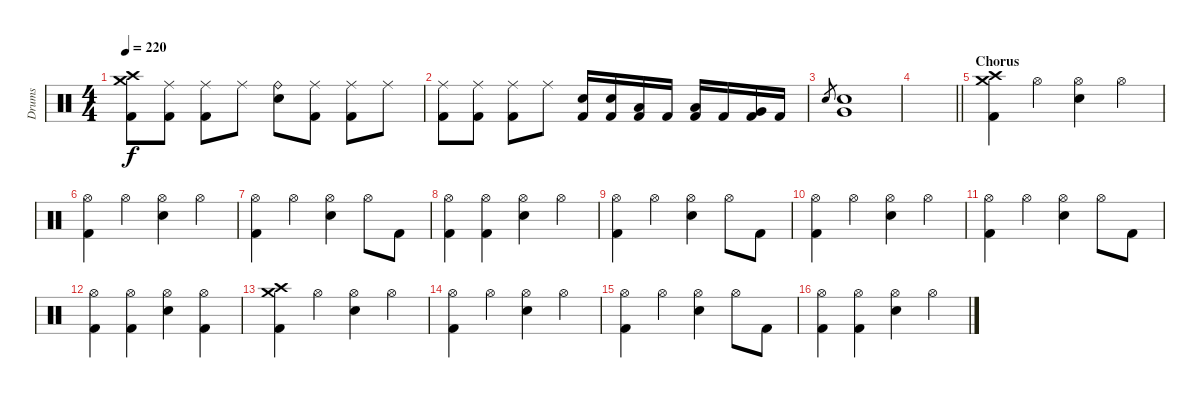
\track ("Drums" "Drums") {instrument percussion}
\staff {score}
\articulation defaults
\ts (4 4)
\tempo 220
\clef neutral
\ks c
("Crash medium (hit)" "Crash high (hit)" "Kick (hit) 2").8{dy f} ("Ride (middle)" "Kick (hit) 2").8 ("Ride (middle)" "Kick (hit) 2").8 "Ride (middle)".8 ("Ride (bell)" "Electric Snare (hit)").8 ("Ride (middle)" "Kick (hit) 2").8 ("Ride (middle)" "Kick (hit) 2").8 "Ride (middle)".8 |
("Ride (middle)" "Kick (hit) 2").8 ("Ride (middle)" "Kick (hit) 2").8 ("Ride (middle)" "Kick (hit) 2").8 "Ride (middle)".8 ("Electric Snare (hit)" "Kick (hit) 2").16 ("Electric Snare (hit)" "Kick (hit) 2").16 ("Low Tom (hit)" "Kick (hit) 2").16 "Kick (hit) 2".16 ("Low Tom (hit)" "Kick (hit) 2").16 "Kick (hit) 2".16 ("Very Low Tom (hit)" "Kick (hit) 2").16 "Kick (hit) 2".16 |
"Electric Snare (hit)".8{gr} ("Very Low Tom (hit)" "Electric Snare (hit)").1 |
\barLineRight lightlight
|
\section ("" "Chorus")
("Crash medium (hit)" "Crash high (hit)" "Kick (hit) 2").4 "Hi-Hat (open)".4 ("Hi-Hat (open)" "Electric Snare (hit)").4 "Hi-Hat (open)".4 |
("Hi-Hat (open)" "Kick (hit) 2").4 "Hi-Hat (open)".4 ("Hi-Hat (open)" "Electric Snare (hit)").4 "Hi-Hat (open)".4 |
("Hi-Hat (open)" "Kick (hit) 2").4 "Hi-Hat (open)".4 ("Hi-Hat (open)" "Electric Snare (hit)").4 "Hi-Hat (open)".8 "Kick (hit) 2".8 |
("Hi-Hat (open)" "Kick (hit) 2").4 ("Hi-Hat (open)" "Kick (hit) 2").4 ("Hi-Hat (open)" "Electric Snare (hit)").4 "Hi-Hat (open)".4 |
("Hi-Hat (open)" "Kick (hit) 2").4 "Hi-Hat (open)".4 ("Hi-Hat (open)" "Electric Snare (hit)").4 "Hi-Hat (open)".8 "Kick (hit) 2".8 |
("Hi-Hat (open)" "Kick (hit) 2").4 "Hi-Hat (open)".4 ("Hi-Hat (open)" "Electric Snare (hit)").4 "Hi-Hat (open)".4 |
("Hi-Hat (open)" "Kick (hit) 2").4 "Hi-Hat (open)".4 ("Hi-Hat (open)" "Electric Snare (hit)").4 "Hi-Hat (open)".8 "Kick (hit) 2".8 |
("Hi-Hat (open)" "Kick (hit) 2").4 ("Hi-Hat (open)" "Kick (hit) 2").4 ("Hi-Hat (open)" "Electric Snare (hit)").4 ("Hi-Hat (open)" "Kick (hit) 2").4 |
("Crash medium (hit)" "Crash high (hit)" "Kick (hit) 2").4 "Hi-Hat (open)".4 ("Hi-Hat (open)" "Electric Snare (hit)").4 "Hi-Hat (open)".4 |
("Hi-Hat (open)" "Kick (hit) 2").4 "Hi-Hat (open)".4 ("Hi-Hat (open)" "Electric Snare (hit)").4 "Hi-Hat (open)".4 |
("Hi-Hat (open)" "Kick (hit) 2").4 "Hi-Hat (open)".4 ("Hi-Hat (open)" "Electric Snare (hit)").4 "Hi-Hat (open)".8 "Kick (hit) 2".8 |
("Hi-Hat (open)" "Kick (hit) 2").4 ("Hi-Hat (open)" "Kick (hit) 2").4 ("Hi-Hat (open)" "Electric Snare (hit)").4 "Hi-Hat (open)".4
